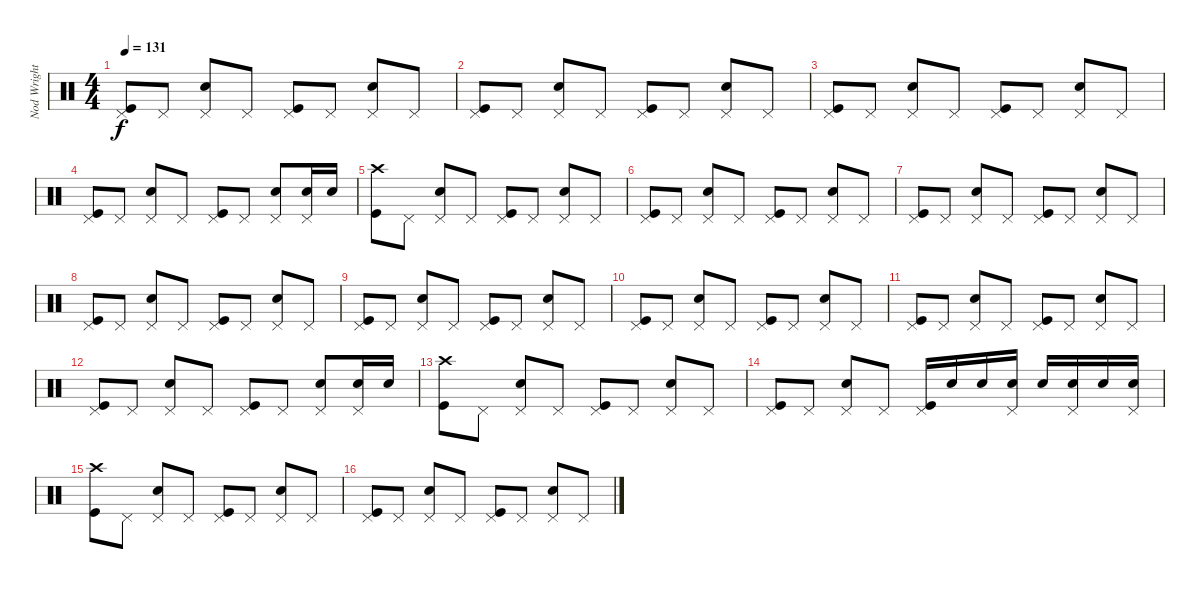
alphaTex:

\track ("Nod Wright" "Nod Wright") {instrument percussion}
\staff {score}
\articulation defaults
\ts (4 4)
\tempo 131
\clef neutral
\ks c
("Pedal Hi-Hat (hit)" "Kick (hit)").8{dy f} "Pedal Hi-Hat (hit)".8 ("Pedal Hi-Hat (hit)" "Snare (hit) 2").8 "Pedal Hi-Hat (hit)".8 ("Pedal Hi-Hat (hit)" "Kick (hit)").8 "Pedal Hi-Hat (hit)".8 ("Pedal Hi-Hat (hit)" "Snare (hit) 2").8 "Pedal Hi-Hat (hit)".8 |
("Pedal Hi-Hat (hit)" "Kick (hit)").8 "Pedal Hi-Hat (hit)".8 ("Pedal Hi-Hat (hit)" "Snare (hit) 2").8 "Pedal Hi-Hat (hit)".8 ("Pedal Hi-Hat (hit)" "Kick (hit)").8 "Pedal Hi-Hat (hit)".8 ("Pedal Hi-Hat (hit)" "Snare (hit) 2").8 "Pedal Hi-Hat (hit)".8 |
("Pedal Hi-Hat (hit)" "Kick (hit)").8 "Pedal Hi-Hat (hit)".8 ("Pedal Hi-Hat (hit)" "Snare (hit) 2").8 "Pedal Hi-Hat (hit)".8 ("Pedal Hi-Hat (hit)" "Kick (hit)").8 "Pedal Hi-Hat (hit)".8 ("Pedal Hi-Hat (hit)" "Snare (hit) 2").8 "Pedal Hi-Hat (hit)".8 |
("Pedal Hi-Hat (hit)" "Kick (hit)").8 "Pedal Hi-Hat (hit)".8 ("Pedal Hi-Hat (hit)" "Snare (hit) 2").8 "Pedal Hi-Hat (hit)".8 ("Pedal Hi-Hat (hit)" "Kick (hit)").8 "Pedal Hi-Hat (hit)".8 ("Pedal Hi-Hat (hit)" "Snare (hit) 2").8 ("Pedal Hi-Hat (hit)" "Snare (hit) 2").16 "Snare (hit) 2".16 |
("Crash high (hit)" "Kick (hit)").8 "Pedal Hi-Hat (hit)".8 ("Pedal Hi-Hat (hit)" "Snare (hit) 2").8 "Pedal Hi-Hat (hit)".8 ("Pedal Hi-Hat (hit)" "Kick (hit)").8 "Pedal Hi-Hat (hit)".8 ("Pedal Hi-Hat (hit)" "Snare (hit) 2").8 "Pedal Hi-Hat (hit)".8 |
("Pedal Hi-Hat (hit)" "Kick (hit)").8 "Pedal Hi-Hat (hit)".8 ("Pedal Hi-Hat (hit)" "Snare (hit) 2").8 "Pedal Hi-Hat (hit)".8 ("Pedal Hi-Hat (hit)" "Kick (hit)").8 "Pedal Hi-Hat (hit)".8 ("Pedal Hi-Hat (hit)" "Snare (hit) 2").8 "Pedal Hi-Hat (hit)".8 |
("Pedal Hi-Hat (hit)" "Kick (hit)").8 "Pedal Hi-Hat (hit)".8 ("Pedal Hi-Hat (hit)" "Snare (hit) 2").8 "Pedal Hi-Hat (hit)".8 ("Pedal Hi-Hat (hit)" "Kick (hit)").8 "Pedal Hi-Hat (hit)".8 ("Pedal Hi-Hat (hit)" "Snare (hit) 2").8 "Pedal Hi-Hat (hit)".8 |
("Pedal Hi-Hat (hit)" "Kick (hit)").8 "Pedal Hi-Hat (hit)".8 ("Pedal Hi-Hat (hit)" "Snare (hit) 2").8 "Pedal Hi-Hat (hit)".8 ("Pedal Hi-Hat (hit)" "Kick (hit)").8 "Pedal Hi-Hat (hit)".8 ("Pedal Hi-Hat (hit)" "Snare (hit) 2").8 "Pedal Hi-Hat (hit)".8 |
("Pedal Hi-Hat (hit)" "Kick (hit)").8 "Pedal Hi-Hat (hit)".8 ("Pedal Hi-Hat (hit)" "Snare (hit) 2").8 "Pedal Hi-Hat (hit)".8 ("Pedal Hi-Hat (hit)" "Kick (hit)").8 "Pedal Hi-Hat (hit)".8 ("Pedal Hi-Hat (hit)" "Snare (hit) 2").8 "Pedal Hi-Hat (hit)".8 |
("Pedal Hi-Hat (hit)" "Kick (hit)").8 "Pedal Hi-Hat (hit)".8 ("Pedal Hi-Hat (hit)" "Snare (hit) 2").8 "Pedal Hi-Hat (hit)".8 ("Pedal Hi-Hat (hit)" "Kick (hit)").8 "Pedal Hi-Hat (hit)".8 ("Pedal Hi-Hat (hit)" "Snare (hit) 2").8 "Pedal Hi-Hat (hit)".8 |
("Pedal Hi-Hat (hit)" "Kick (hit)").8 "Pedal Hi-Hat (hit)".8 ("Pedal Hi-Hat (hit)" "Snare (hit) 2").8 "Pedal Hi-Hat (hit)".8 ("Pedal Hi-Hat (hit)" "Kick (hit)").8 "Pedal Hi-Hat (hit)".8 ("Pedal Hi-Hat (hit)" "Snare (hit) 2").8 "Pedal Hi-Hat (hit)".8 |
("Pedal Hi-Hat (hit)" "Kick (hit)").8 "Pedal Hi-Hat (hit)".8 ("Pedal Hi-Hat (hit)" "Snare (hit) 2").8 "Pedal Hi-Hat (hit)".8 ("Pedal Hi-Hat (hit)" "Kick (hit)").8 "Pedal Hi-Hat (hit)".8 ("Pedal Hi-Hat (hit)" "Snare (hit) 2").8 ("Pedal Hi-Hat (hit)" "Snare (hit) 2").16 "Snare (hit) 2".16 |
("Crash high (hit)" "Kick (hit)").8 "Pedal Hi-Hat (hit)".8 ("Pedal Hi-Hat (hit)" "Snare (hit) 2").8 "Pedal Hi-Hat (hit)".8 ("Pedal Hi-Hat (hit)" "Kick (hit)").8 "Pedal Hi-Hat (hit)".8 ("Pedal Hi-Hat (hit)" "Snare (hit) 2").8 "Pedal Hi-Hat (hit)".8 |
("Pedal Hi-Hat (hit)" "Kick (hit)").8 "Pedal Hi-Hat (hit)".8 ("Pedal Hi-Hat (hit)" "Snare (hit) 2").8 "Pedal Hi-Hat (hit)".8 ("Pedal Hi-Hat (hit)" "Kick (hit)").16 "Snare (hit) 2".16 "Snare (hit) 2".16 ("Pedal Hi-Hat (hit)" "Snare (hit) 2").16 "Snare (hit) 2".16 ("Pedal Hi-Hat (hit)" "Snare (hit) 2").16 "Snare (hit) 2".16 ("Pedal Hi-Hat (hit)" "Snare (hit) 2").16 |
("Crash high (hit)" "Kick (hit)").8 "Pedal Hi-Hat (hit)".8 ("Pedal Hi-Hat (hit)" "Snare (hit) 2").8 "Pedal Hi-Hat (hit)".8 ("Pedal Hi-Hat (hit)" "Kick (hit)").8 "Pedal Hi-Hat (hit)".8 ("Pedal Hi-Hat (hit)" "Snare (hit) 2").8 "Pedal Hi-Hat (hit)".8 |
("Pedal Hi-Hat (hit)" "Kick (hit)").8 "Pedal Hi-Hat (hit)".8 ("Pedal Hi-Hat (hit)" "Snare (hit) 2").8 "Pedal Hi-Hat (hit)".8 ("Pedal Hi-Hat (hit)" "Kick (hit)").8 "Pedal Hi-Hat (hit)".8 ("Pedal Hi-Hat (hit)" "Snare (hit) 2").8 "Pedal Hi-Hat (hit)".8
